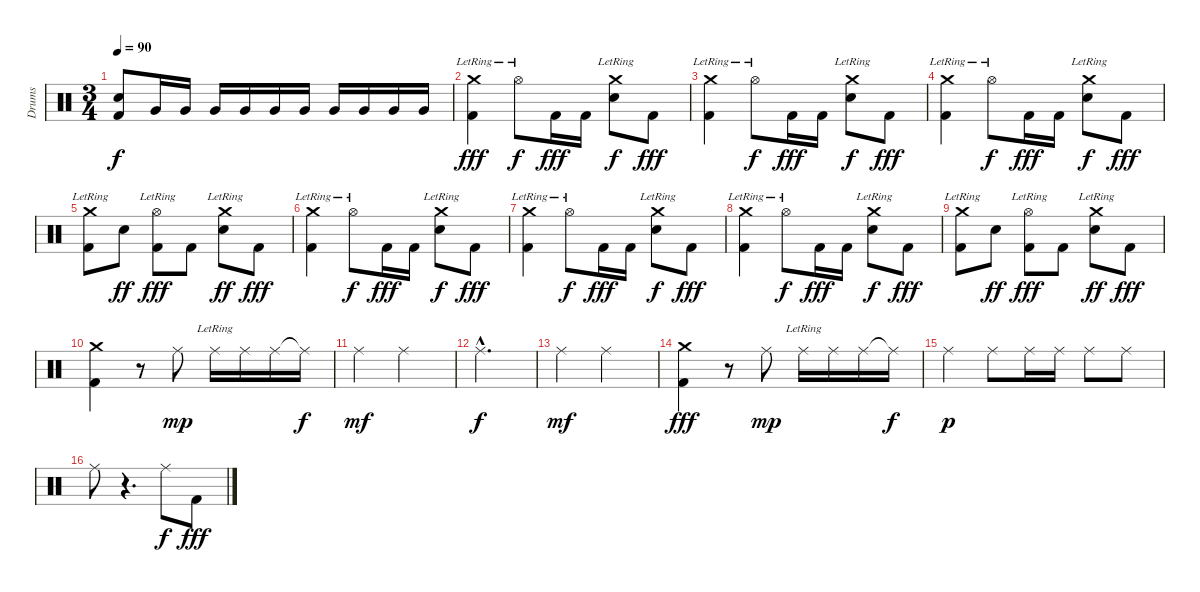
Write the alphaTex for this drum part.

\track ("Drums" "Drums") {instrument percussion}
\staff {score}
\articulation defaults
\ts (3 4)
\tempo 90
\clef neutral
\ks c
("Snare (hit) 2" "Kick (hit) 2").8{dy f} "Very Low Tom (hit)".16 "Very Low Tom (hit)".16 "Very Low Tom (hit)".16 "Very Low Tom (hit)".16 "Very Low Tom (hit)".16 "Very Low Tom (hit)".16 "Very Low Tom (hit)".16 "Very Low Tom (hit)".16 "Very Low Tom (hit)".16 "Very Low Tom (hit)".16 |
("Crash medium (hit)"{lr} "Kick (hit) 2").4{dy fff} "Hi-Hat (open)"{lr}.8{dy f} "Kick (hit) 2".16{dy fff} "Kick (hit) 2".16 ("Crash medium (hit)"{lr} "Snare (hit) 2").8{dy f} "Kick (hit) 2".8{dy fff} |
("Crash medium (hit)"{lr} "Kick (hit) 2").4 "Hi-Hat (open)"{lr}.8{dy f} "Kick (hit) 2".16{dy fff} "Kick (hit) 2".16 ("Crash medium (hit)"{lr} "Snare (hit) 2").8{dy f} "Kick (hit) 2".8{dy fff} |
("Crash medium (hit)"{lr} "Kick (hit) 2").4 "Hi-Hat (open)"{lr}.8{dy f} "Kick (hit) 2".16{dy fff} "Kick (hit) 2".16 ("Crash medium (hit)"{lr} "Snare (hit) 2").8{dy f} "Kick (hit) 2".8{dy fff} |
("Crash medium (hit)"{lr} "Kick (hit) 2").8 "Snare (hit) 2".8{dy ff} ("Hi-Hat (open)"{lr} "Kick (hit) 2").8{dy fff} "Kick (hit) 2".8 ("Crash medium (hit)"{lr} "Snare (hit) 2").8{dy ff} "Kick (hit) 2".8{dy fff} |
("Crash medium (hit)"{lr} "Kick (hit) 2").4 "Hi-Hat (open)"{lr}.8{dy f} "Kick (hit) 2".16{dy fff} "Kick (hit) 2".16 ("Crash medium (hit)"{lr} "Snare (hit) 2").8{dy f} "Kick (hit) 2".8{dy fff} |
("Crash medium (hit)"{lr} "Kick (hit) 2").4 "Hi-Hat (open)"{lr}.8{dy f} "Kick (hit) 2".16{dy fff} "Kick (hit) 2".16 ("Crash medium (hit)"{lr} "Snare (hit) 2").8{dy f} "Kick (hit) 2".8{dy fff} |
("Crash medium (hit)"{lr} "Kick (hit) 2").4 "Hi-Hat (open)"{lr}.8{dy f} "Kick (hit) 2".16{dy fff} "Kick (hit) 2".16 ("Crash medium (hit)"{lr} "Snare (hit) 2").8{dy f} "Kick (hit) 2".8{dy fff} |
("Crash medium (hit)"{lr} "Kick (hit) 2").8 "Snare (hit) 2".8{dy ff} ("Hi-Hat (open)"{lr} "Kick (hit) 2").8{dy fff} "Kick (hit) 2".8 ("Crash medium (hit)"{lr} "Snare (hit) 2").8{dy ff} "Kick (hit) 2".8{dy fff} |
("Crash medium (hit)" "Kick (hit) 2").4 r.8 "Ride (middle)".8{dy mp} "Ride (middle)"{lr}.16 "Ride (middle)".16 "Ride (middle)".16 "Ride (middle)"{t}.16{dy f} |
"Ride (middle)".4{dy mf} "Ride (middle)".2 |
"Ride (middle)"{hac}.2{d dy f} |
"Ride (middle)".4{dy mf} "Ride (middle)".2 |
("Crash medium (hit)" "Kick (hit) 2").4{dy fff} r.8 "Ride (middle)".8{dy mp} "Ride (middle)"{lr}.16 "Ride (middle)".16 "Ride (middle)".16 "Ride (middle)"{t}.16{dy f} |
"Ride (middle)".4{dy p} "Ride (middle)".8 "Ride (middle)".16 "Ride (middle)".16 "Ride (middle)".8 "Ride (middle)".8 |
"Ride (middle)".8 r.4{d} "Ride (middle)".8{dy f} "Kick (hit) 2".8{dy fff}
